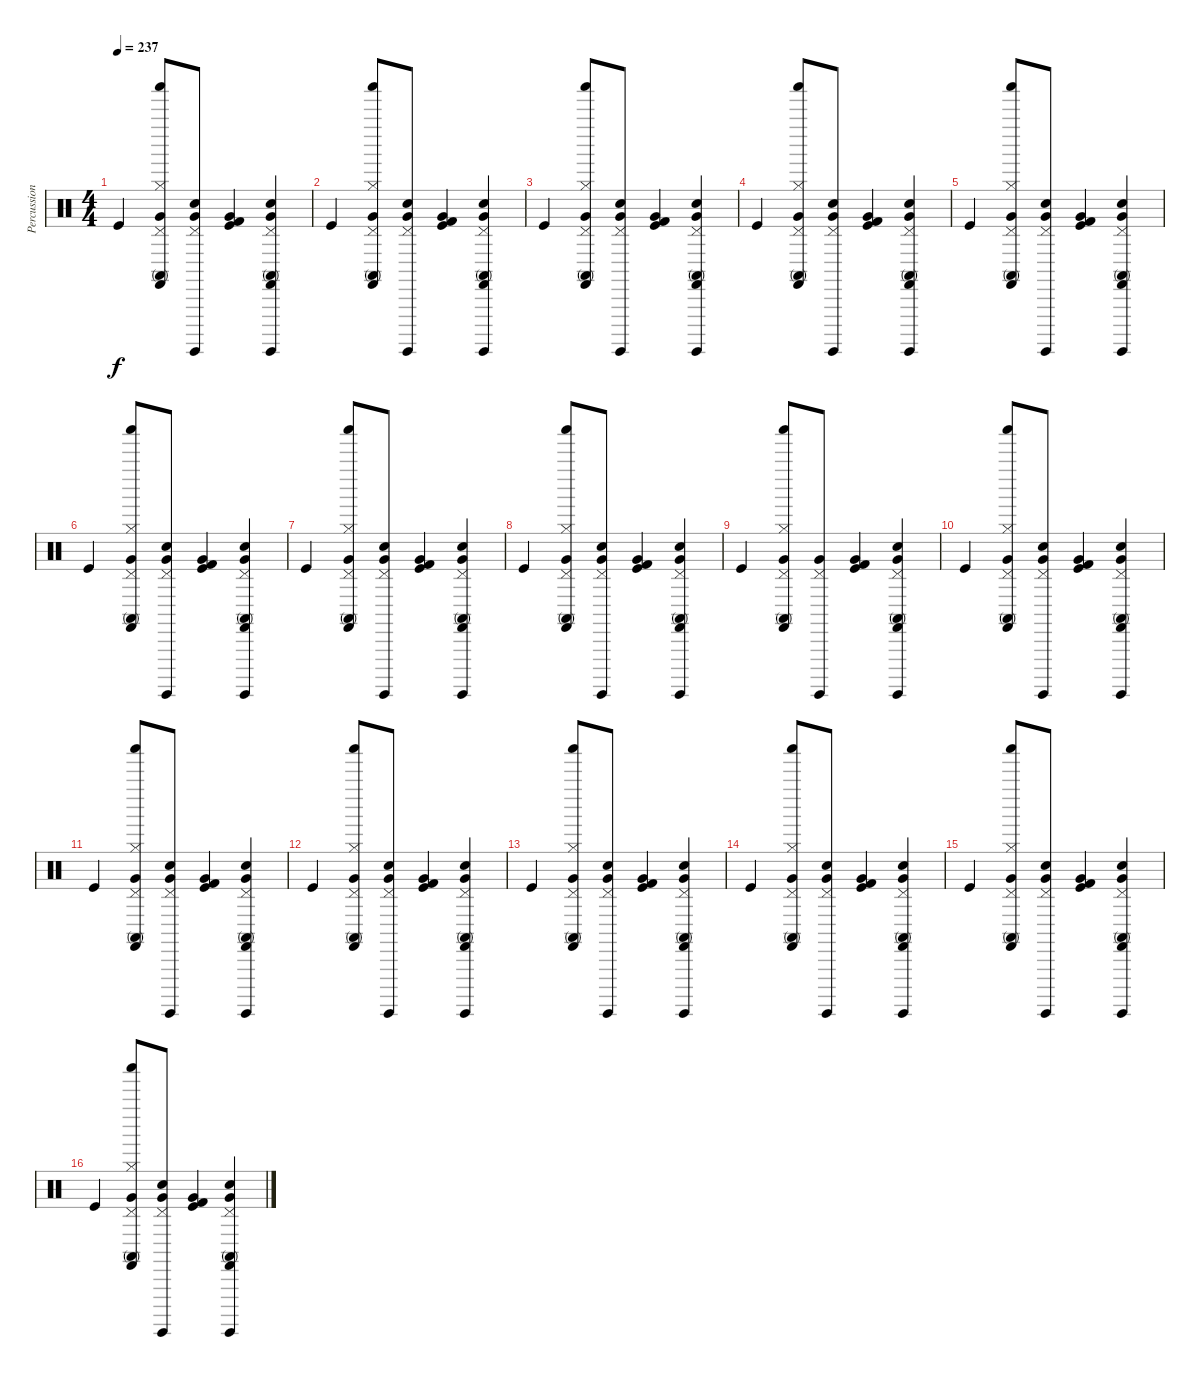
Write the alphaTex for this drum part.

\track ("Percussions" "Percussion") {instrument percussion}
\staff {score}
\articulation defaults
\ts (4 4)
\tempo 237
\clef neutral
\ks c "Kick (hit)".4{dy f}
("Hi-Hat (closed)" "Shaker (hit)" "Pedal Hi-Hat (hit)" "Very Low Tom (hit)" "Conga high (mute)" "Castanets (hit)").8 ("Hand Clap (hit)" "Surdo (hit)" "Pedal Hi-Hat (hit)" "Very Low Tom (hit)").8 ("Kick (hit)" "Kick (hit) 2" "Very Low Tom (hit)").4 ("Hand Clap (hit)" "Surdo (hit)" "Pedal Hi-Hat (hit)" "Very Low Tom (hit)" "Conga high (mute)" "Castanets (hit)").4 |
"Kick (hit)".4 ("Hi-Hat (closed)" "Shaker (hit)" "Pedal Hi-Hat (hit)" "Very Low Tom (hit)" "Conga high (mute)" "Castanets (hit)").8 ("Hand Clap (hit)" "Surdo (hit)" "Pedal Hi-Hat (hit)" "Very Low Tom (hit)").8 ("Kick (hit)" "Kick (hit) 2" "Very Low Tom (hit)").4 ("Hand Clap (hit)" "Surdo (hit)" "Pedal Hi-Hat (hit)" "Very Low Tom (hit)" "Conga high (mute)" "Castanets (hit)").4 |
"Kick (hit)".4 ("Hi-Hat (closed)" "Shaker (hit)" "Pedal Hi-Hat (hit)" "Very Low Tom (hit)" "Conga high (mute)" "Castanets (hit)").8 ("Hand Clap (hit)" "Surdo (hit)" "Pedal Hi-Hat (hit)" "Very Low Tom (hit)").8 ("Kick (hit)" "Kick (hit) 2" "Very Low Tom (hit)").4 ("Hand Clap (hit)" "Surdo (hit)" "Pedal Hi-Hat (hit)" "Very Low Tom (hit)" "Conga high (mute)" "Castanets (hit)").4 |
"Kick (hit)".4 ("Hi-Hat (closed)" "Shaker (hit)" "Pedal Hi-Hat (hit)" "Very Low Tom (hit)" "Conga high (mute)" "Castanets (hit)").8 ("Hand Clap (hit)" "Surdo (hit)" "Pedal Hi-Hat (hit)" "Very Low Tom (hit)").8 ("Kick (hit)" "Kick (hit) 2" "Very Low Tom (hit)").4 ("Hand Clap (hit)" "Surdo (hit)" "Pedal Hi-Hat (hit)" "Very Low Tom (hit)" "Conga high (mute)" "Castanets (hit)").4 |
"Kick (hit)".4 ("Hi-Hat (closed)" "Shaker (hit)" "Pedal Hi-Hat (hit)" "Very Low Tom (hit)" "Conga high (mute)" "Castanets (hit)").8 ("Hand Clap (hit)" "Surdo (hit)" "Pedal Hi-Hat (hit)" "Very Low Tom (hit)").8 ("Kick (hit)" "Kick (hit) 2" "Very Low Tom (hit)").4 ("Hand Clap (hit)" "Surdo (hit)" "Pedal Hi-Hat (hit)" "Very Low Tom (hit)" "Conga high (mute)" "Castanets (hit)").4 |
"Kick (hit)".4 ("Hi-Hat (closed)" "Shaker (hit)" "Pedal Hi-Hat (hit)" "Very Low Tom (hit)" "Conga high (mute)" "Castanets (hit)").8 ("Hand Clap (hit)" "Surdo (hit)" "Pedal Hi-Hat (hit)" "Very Low Tom (hit)").8 ("Kick (hit)" "Kick (hit) 2" "Very Low Tom (hit)").4 ("Hand Clap (hit)" "Surdo (hit)" "Pedal Hi-Hat (hit)" "Very Low Tom (hit)" "Conga high (mute)" "Castanets (hit)").4 |
"Kick (hit)".4 ("Hi-Hat (closed)" "Shaker (hit)" "Pedal Hi-Hat (hit)" "Very Low Tom (hit)" "Conga high (mute)" "Castanets (hit)").8 ("Hand Clap (hit)" "Surdo (hit)" "Pedal Hi-Hat (hit)" "Very Low Tom (hit)").8 ("Kick (hit)" "Kick (hit) 2" "Very Low Tom (hit)").4 ("Hand Clap (hit)" "Surdo (hit)" "Pedal Hi-Hat (hit)" "Very Low Tom (hit)" "Conga high (mute)" "Castanets (hit)").4 |
"Kick (hit)".4 ("Hi-Hat (closed)" "Shaker (hit)" "Pedal Hi-Hat (hit)" "Very Low Tom (hit)" "Conga high (mute)" "Castanets (hit)").8 ("Hand Clap (hit)" "Surdo (hit)" "Pedal Hi-Hat (hit)" "Very Low Tom (hit)").8 ("Kick (hit)" "Kick (hit) 2" "Very Low Tom (hit)").4 ("Hand Clap (hit)" "Surdo (hit)" "Pedal Hi-Hat (hit)" "Very Low Tom (hit)" "Conga high (mute)" "Castanets (hit)").4 |
"Kick (hit)".4 ("Hi-Hat (closed)" "Shaker (hit)" "Pedal Hi-Hat (hit)" "Very Low Tom (hit)" "Conga high (mute)" "Castanets (hit)").8 ("Surdo (hit)" "Pedal Hi-Hat (hit)" "Very Low Tom (hit)").8 ("Kick (hit)" "Kick (hit) 2" "Very Low Tom (hit)").4 ("Hand Clap (hit)" "Surdo (hit)" "Pedal Hi-Hat (hit)" "Very Low Tom (hit)" "Conga high (mute)" "Castanets (hit)").4 |
"Kick (hit)".4 ("Hi-Hat (closed)" "Shaker (hit)" "Pedal Hi-Hat (hit)" "Very Low Tom (hit)" "Conga high (mute)" "Castanets (hit)").8 ("Hand Clap (hit)" "Surdo (hit)" "Pedal Hi-Hat (hit)" "Very Low Tom (hit)").8 ("Kick (hit)" "Kick (hit) 2" "Very Low Tom (hit)").4 ("Hand Clap (hit)" "Surdo (hit)" "Pedal Hi-Hat (hit)" "Very Low Tom (hit)" "Conga high (mute)" "Castanets (hit)").4 |
"Kick (hit)".4 ("Hi-Hat (closed)" "Shaker (hit)" "Pedal Hi-Hat (hit)" "Very Low Tom (hit)" "Conga high (mute)" "Castanets (hit)").8 ("Hand Clap (hit)" "Surdo (hit)" "Pedal Hi-Hat (hit)" "Very Low Tom (hit)").8 ("Kick (hit)" "Kick (hit) 2" "Very Low Tom (hit)").4 ("Hand Clap (hit)" "Surdo (hit)" "Pedal Hi-Hat (hit)" "Very Low Tom (hit)" "Conga high (mute)" "Castanets (hit)").4 |
"Kick (hit)".4 ("Hi-Hat (closed)" "Shaker (hit)" "Pedal Hi-Hat (hit)" "Very Low Tom (hit)" "Conga high (mute)" "Castanets (hit)").8 ("Hand Clap (hit)" "Surdo (hit)" "Pedal Hi-Hat (hit)" "Very Low Tom (hit)").8 ("Kick (hit)" "Kick (hit) 2" "Very Low Tom (hit)").4 ("Hand Clap (hit)" "Surdo (hit)" "Pedal Hi-Hat (hit)" "Very Low Tom (hit)" "Conga high (mute)" "Castanets (hit)").4 |
"Kick (hit)".4 ("Hi-Hat (closed)" "Shaker (hit)" "Pedal Hi-Hat (hit)" "Very Low Tom (hit)" "Conga high (mute)" "Castanets (hit)").8 ("Hand Clap (hit)" "Surdo (hit)" "Pedal Hi-Hat (hit)" "Very Low Tom (hit)").8 ("Kick (hit)" "Kick (hit) 2" "Very Low Tom (hit)").4 ("Hand Clap (hit)" "Surdo (hit)" "Pedal Hi-Hat (hit)" "Very Low Tom (hit)" "Conga high (mute)" "Castanets (hit)").4 |
"Kick (hit)".4 ("Hi-Hat (closed)" "Shaker (hit)" "Pedal Hi-Hat (hit)" "Very Low Tom (hit)" "Conga high (mute)" "Castanets (hit)").8 ("Hand Clap (hit)" "Surdo (hit)" "Pedal Hi-Hat (hit)" "Very Low Tom (hit)").8 ("Kick (hit)" "Kick (hit) 2" "Very Low Tom (hit)").4 ("Hand Clap (hit)" "Surdo (hit)" "Pedal Hi-Hat (hit)" "Very Low Tom (hit)" "Conga high (mute)" "Castanets (hit)").4 |
"Kick (hit)".4 ("Hi-Hat (closed)" "Shaker (hit)" "Pedal Hi-Hat (hit)" "Very Low Tom (hit)" "Conga high (mute)" "Castanets (hit)").8 ("Hand Clap (hit)" "Surdo (hit)" "Pedal Hi-Hat (hit)" "Very Low Tom (hit)").8 ("Kick (hit)" "Kick (hit) 2" "Very Low Tom (hit)").4 ("Hand Clap (hit)" "Surdo (hit)" "Pedal Hi-Hat (hit)" "Very Low Tom (hit)" "Conga high (mute)" "Castanets (hit)").4 |
"Kick (hit)".4 ("Hi-Hat (closed)" "Shaker (hit)" "Pedal Hi-Hat (hit)" "Very Low Tom (hit)" "Conga high (mute)" "Castanets (hit)").8 ("Hand Clap (hit)" "Surdo (hit)" "Pedal Hi-Hat (hit)" "Very Low Tom (hit)").8 ("Kick (hit)" "Kick (hit) 2" "Very Low Tom (hit)").4 ("Hand Clap (hit)" "Surdo (hit)" "Pedal Hi-Hat (hit)" "Very Low Tom (hit)" "Conga high (mute)" "Castanets (hit)").4
